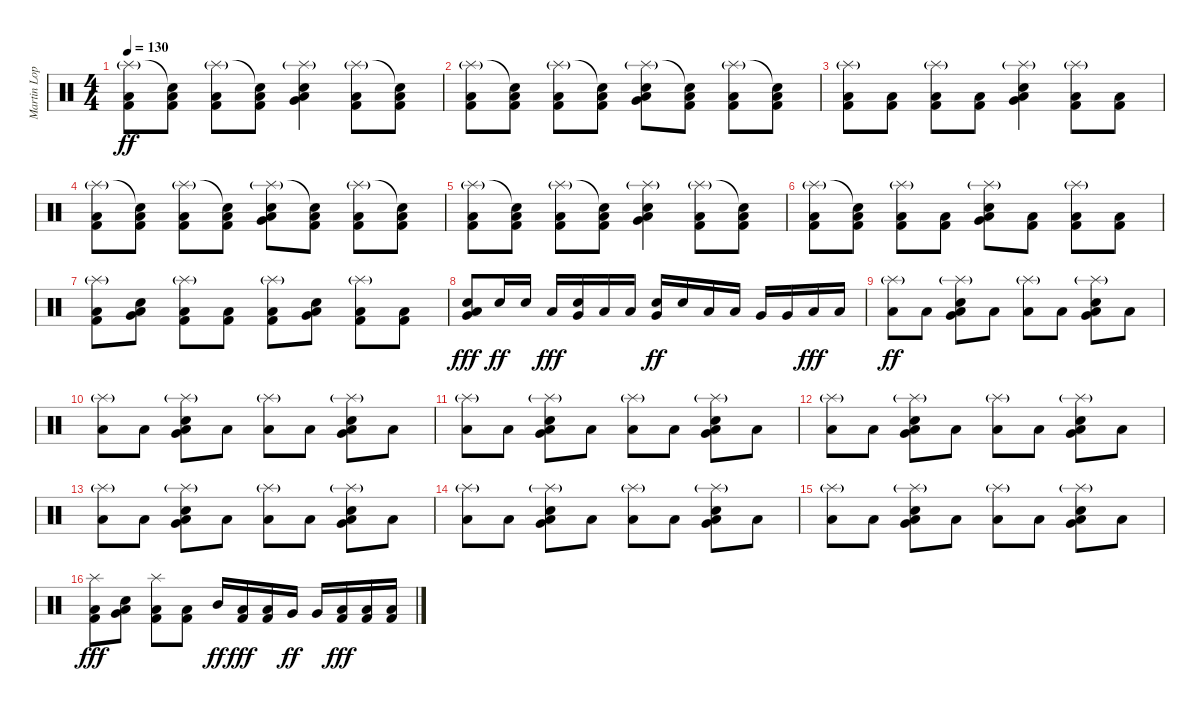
\track ("Martin Lopez" "Martin Lop") {instrument percussion}
\staff {score}
\articulation defaults
\ts (4 4)
\tempo 130
\clef neutral
\ks c
("Splash (hit)"{g} "Kick (hit) 2" "Low Floor Tom (hit)").8{dy ff} ("Snare (hit)"{t} "Kick (hit) 2" "Low Floor Tom (hit)").8 ("Splash (hit)"{g} "Kick (hit) 2" "Low Floor Tom (hit)").8 ("Snare (hit)"{t} "Kick (hit) 2" "Low Floor Tom (hit)").8 ("Splash (hit)"{g} "Very Low Tom (hit)" "Snare (hit) 2" "Low Floor Tom (hit)").4 ("Splash (hit)"{g} "Kick (hit) 2" "Low Floor Tom (hit)").8 ("Snare (hit)"{t} "Kick (hit) 2" "Low Floor Tom (hit)").8 |
("Splash (hit)"{g} "Kick (hit) 2" "Low Floor Tom (hit)").8 ("Snare (hit)"{t} "Kick (hit) 2" "Low Floor Tom (hit)").8 ("Splash (hit)"{g} "Kick (hit) 2" "Low Floor Tom (hit)").8 ("Snare (hit)"{t} "Kick (hit) 2" "Low Floor Tom (hit)").8 ("Splash (hit)"{g} "Very Low Tom (hit)" "Snare (hit) 2" "Low Floor Tom (hit)").8 ("Snare (hit)"{t} "Kick (hit) 2" "Low Floor Tom (hit)").8 ("Splash (hit)"{g} "Kick (hit) 2" "Low Floor Tom (hit)").8 ("Snare (hit)"{t} "Kick (hit) 2" "Low Floor Tom (hit)").8 |
("Splash (hit)"{g} "Kick (hit) 2" "Low Floor Tom (hit)").8 ("Kick (hit) 2" "Low Floor Tom (hit)").8 ("Splash (hit)"{g} "Kick (hit) 2" "Low Floor Tom (hit)").8 ("Kick (hit) 2" "Low Floor Tom (hit)").8 ("Splash (hit)"{g} "Very Low Tom (hit)" "Snare (hit) 2" "Low Floor Tom (hit)").4 ("Splash (hit)"{g} "Kick (hit) 2" "Low Floor Tom (hit)").8 ("Kick (hit) 2" "Low Floor Tom (hit)").8 |
("Splash (hit)"{g} "Kick (hit) 2" "Low Floor Tom (hit)").8 ("Snare (hit)"{t} "Kick (hit) 2" "Low Floor Tom (hit)").8 ("Splash (hit)"{g} "Kick (hit) 2" "Low Floor Tom (hit)").8 ("Snare (hit)"{t} "Kick (hit) 2" "Low Floor Tom (hit)").8 ("Splash (hit)"{g} "Very Low Tom (hit)" "Snare (hit) 2" "Low Floor Tom (hit)").8 ("Snare (hit)"{t} "Kick (hit) 2" "Low Floor Tom (hit)").8 ("Splash (hit)"{g} "Kick (hit) 2" "Low Floor Tom (hit)").8 ("Snare (hit)"{t} "Kick (hit) 2" "Low Floor Tom (hit)").8 |
("Splash (hit)"{g} "Kick (hit) 2" "Low Floor Tom (hit)").8 ("Snare (hit)"{t} "Kick (hit) 2" "Low Floor Tom (hit)").8 ("Splash (hit)"{g} "Kick (hit) 2" "Low Floor Tom (hit)").8 ("Snare (hit)"{t} "Kick (hit) 2" "Low Floor Tom (hit)").8 ("Splash (hit)"{g} "Very Low Tom (hit)" "Snare (hit) 2" "Low Floor Tom (hit)").4 ("Splash (hit)"{g} "Kick (hit) 2" "Low Floor Tom (hit)").8 ("Snare (hit)"{t} "Kick (hit) 2" "Low Floor Tom (hit)").8 |
("Splash (hit)"{g} "Kick (hit) 2" "Low Floor Tom (hit)").8 ("Snare (hit)"{t} "Kick (hit) 2" "Low Floor Tom (hit)").8 ("Splash (hit)"{g} "Kick (hit) 2" "Low Floor Tom (hit)").8 ("Kick (hit) 2" "Low Floor Tom (hit)").8 ("Splash (hit)"{g} "Very Low Tom (hit)" "Snare (hit) 2" "Low Floor Tom (hit)").8 ("Kick (hit) 2" "Low Floor Tom (hit)").8 ("Splash (hit)"{g} "Kick (hit) 2" "Low Floor Tom (hit)").8 ("Kick (hit) 2" "Low Floor Tom (hit)").8 |
("Splash (hit)"{g} "Kick (hit) 2" "Low Floor Tom (hit)").8 ("Very Low Tom (hit)" "Snare (hit) 2" "Low Floor Tom (hit)").8 ("Splash (hit)"{g} "Kick (hit) 2" "Low Floor Tom (hit)").8 ("Kick (hit) 2" "Low Floor Tom (hit)").8 ("Splash (hit)"{g} "Kick (hit) 2" "Low Floor Tom (hit)").8 ("Very Low Tom (hit)" "Snare (hit) 2" "Low Floor Tom (hit)").8 ("Splash (hit)"{g} "Kick (hit) 2" "Low Floor Tom (hit)").8 ("Kick (hit) 2" "Low Floor Tom (hit)").8 |
("Very Low Tom (hit)" "Snare (hit) 2" "Low Floor Tom (hit)").8{dy fff} "Snare (hit) 2".16{dy ff} "Snare (hit) 2".16 "Low Floor Tom (hit)".16{dy fff} ("Very Low Tom (hit)" "Snare (hit) 2").16 "Low Floor Tom (hit)".16 "Low Floor Tom (hit)".16 ("Very Low Tom (hit)" "Snare (hit) 2").16{dy ff} "Snare (hit) 2".16 "Low Tom (hit)".16 "Low Tom (hit)".16 "Very Low Tom (hit)".16 "Very Low Tom (hit)".16 "Low Floor Tom (hit)".16{dy fff} "Low Floor Tom (hit)".16 |
("Splash (hit)"{g} "Low Floor Tom (hit)").8{dy ff} "Low Floor Tom (hit)".8 ("Splash (hit)"{g} "Very Low Tom (hit)" "Snare (hit) 2" "Low Floor Tom (hit)").8 "Low Floor Tom (hit)".8 ("Splash (hit)"{g} "Low Floor Tom (hit)").8 "Low Floor Tom (hit)".8 ("Splash (hit)"{g} "Very Low Tom (hit)" "Snare (hit) 2" "Low Floor Tom (hit)").8 "Low Floor Tom (hit)".8 |
("Splash (hit)"{g} "Low Floor Tom (hit)").8 "Low Floor Tom (hit)".8 ("Splash (hit)"{g} "Very Low Tom (hit)" "Snare (hit) 2" "Low Floor Tom (hit)").8 "Low Floor Tom (hit)".8 ("Splash (hit)"{g} "Low Floor Tom (hit)").8 "Low Floor Tom (hit)".8 ("Splash (hit)"{g} "Very Low Tom (hit)" "Snare (hit) 2" "Low Floor Tom (hit)").8 "Low Floor Tom (hit)".8 |
("Splash (hit)"{g} "Low Floor Tom (hit)").8 "Low Floor Tom (hit)".8 ("Splash (hit)"{g} "Very Low Tom (hit)" "Snare (hit) 2" "Low Floor Tom (hit)").8 "Low Floor Tom (hit)".8 ("Splash (hit)"{g} "Low Floor Tom (hit)").8 "Low Floor Tom (hit)".8 ("Splash (hit)"{g} "Very Low Tom (hit)" "Snare (hit) 2" "Low Floor Tom (hit)").8 "Low Floor Tom (hit)".8 |
("Splash (hit)"{g} "Low Floor Tom (hit)").8 "Low Floor Tom (hit)".8 ("Splash (hit)"{g} "Very Low Tom (hit)" "Snare (hit) 2" "Low Floor Tom (hit)").8 "Low Floor Tom (hit)".8 ("Splash (hit)"{g} "Low Floor Tom (hit)").8 "Low Floor Tom (hit)".8 ("Splash (hit)"{g} "Very Low Tom (hit)" "Snare (hit) 2" "Low Floor Tom (hit)").8 "Low Floor Tom (hit)".8 |
("Splash (hit)"{g} "Low Floor Tom (hit)").8{volume 12} "Low Floor Tom (hit)".8 ("Splash (hit)"{g} "Very Low Tom (hit)" "Snare (hit) 2" "Low Floor Tom (hit)").8 "Low Floor Tom (hit)".8 ("Splash (hit)"{g} "Low Floor Tom (hit)").8 "Low Floor Tom (hit)".8 ("Splash (hit)"{g} "Very Low Tom (hit)" "Snare (hit) 2" "Low Floor Tom (hit)").8 "Low Floor Tom (hit)".8 |
("Splash (hit)"{g} "Low Floor Tom (hit)").8 "Low Floor Tom (hit)".8 ("Splash (hit)"{g} "Very Low Tom (hit)" "Snare (hit) 2" "Low Floor Tom (hit)").8 "Low Floor Tom (hit)".8 ("Splash (hit)"{g} "Low Floor Tom (hit)").8 "Low Floor Tom (hit)".8 ("Splash (hit)"{g} "Very Low Tom (hit)" "Snare (hit) 2" "Low Floor Tom (hit)").8 "Low Floor Tom (hit)".8 |
("Splash (hit)"{g} "Low Floor Tom (hit)").8 "Low Floor Tom (hit)".8 ("Splash (hit)"{g} "Very Low Tom (hit)" "Snare (hit) 2" "Low Floor Tom (hit)").8 "Low Floor Tom (hit)".8 ("Splash (hit)"{g} "Low Floor Tom (hit)").8 "Low Floor Tom (hit)".8 ("Splash (hit)"{g} "Very Low Tom (hit)" "Snare (hit) 2" "Low Floor Tom (hit)").8 "Low Floor Tom (hit)".8 |
("Splash (hit)" "Kick (hit) 2" "Low Floor Tom (hit)").8{dy fff} ("Very Low Tom (hit)" "Snare (hit) 2" "Low Floor Tom (hit)").8 ("Splash (hit)" "Kick (hit) 2" "Low Floor Tom (hit)").8 ("Kick (hit) 2" "Low Floor Tom (hit)").8 "Mid Tom (hit)".16{dy ff} ("Kick (hit) 2" "Low Floor Tom (hit)").16{dy fff} ("Kick (hit) 2" "Low Floor Tom (hit)").16 "Very Low Tom (hit)".16{dy ff} "Very Low Tom (hit)".16 ("Kick (hit) 2" "Low Floor Tom (hit)").16{dy fff} ("Kick (hit) 2" "Low Floor Tom (hit)").16 ("Kick (hit) 2" "Low Floor Tom (hit)").16
